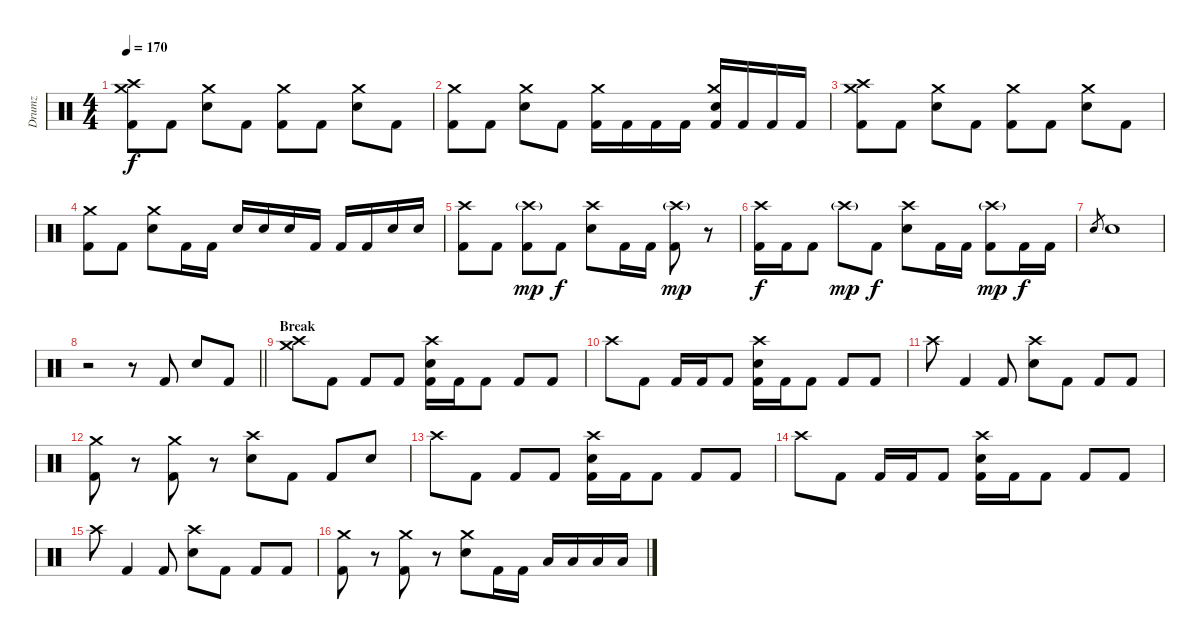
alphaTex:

\track ("Drumz" "Drumz") {instrument percussion}
\staff {score}
\articulation defaults
\ts (4 4)
\tempo 170
\clef neutral
\ks c
("Crash high (hit)" "Kick (hit) 2" "Crash medium (hit)").8{dy f} "Kick (hit) 2".8 ("Electric Snare (hit)" "Crash medium (hit)").8 "Kick (hit) 2".8 ("Kick (hit) 2" "Crash medium (hit)").8 "Kick (hit) 2".8 ("Electric Snare (hit)" "Crash medium (hit)").8 "Kick (hit) 2".8 |
("Kick (hit) 2" "Crash medium (hit)").8 "Kick (hit) 2".8 ("Electric Snare (hit)" "Crash medium (hit)").8 "Kick (hit) 2".8 ("Kick (hit) 2" "Crash medium (hit)").16 "Kick (hit) 2".16 "Kick (hit) 2".16 "Kick (hit) 2".16 ("Electric Snare (hit)" "Crash medium (hit)" "Kick (hit) 2").16 "Kick (hit) 2".16 "Kick (hit) 2".16 "Kick (hit) 2".16 |
("Crash high (hit)" "Kick (hit) 2" "Crash medium (hit)").8 "Kick (hit) 2".8 ("Electric Snare (hit)" "Crash medium (hit)").8 "Kick (hit) 2".8 ("Kick (hit) 2" "Crash medium (hit)").8 "Kick (hit) 2".8 ("Electric Snare (hit)" "Crash medium (hit)").8 "Kick (hit) 2".8 |
("Kick (hit) 2" "Crash medium (hit)").8 "Kick (hit) 2".8 ("Electric Snare (hit)" "Crash medium (hit)").8 "Kick (hit) 2".16 "Kick (hit) 2".16 "Electric Snare (hit)".16 "Electric Snare (hit)".16 "Electric Snare (hit)".16 "Kick (hit) 2".16 "Kick (hit) 2".16 "Kick (hit) 2".16 "Electric Snare (hit)".16 "Electric Snare (hit)".16 |
("Kick (hit) 2" "Crash high (hit)").8 "Kick (hit) 2".8 ("Kick (hit) 2" "Crash high (hit)"{g}).8{dy mp} "Kick (hit) 2".8{dy f} ("Electric Snare (hit)" "Crash high (hit)").8 "Kick (hit) 2".16 "Kick (hit) 2".16 ("Kick (hit) 2" "Crash high (hit)"{g}).8{dy mp} r.8 |
("Crash high (hit)" "Kick (hit) 2").16{dy f} "Kick (hit) 2".16 "Kick (hit) 2".8 "Crash high (hit)"{g}.8{dy mp} "Kick (hit) 2".8{dy f} ("Crash high (hit)" "Electric Snare (hit)").8 "Kick (hit) 2".16 "Kick (hit) 2".16 ("Kick (hit) 2" "Crash high (hit)"{g}).8{dy mp} "Kick (hit) 2".16{dy f} "Kick (hit) 2".16 |
"Electric Snare (hit)".8{gr} "Electric Snare (hit)".1 |
\barLineRight lightlight
r.2 r.8 "Kick (hit) 2".8 "Electric Snare (hit)".8 "Kick (hit) 2".8 |
\section ("" "Break")
("Crash high (hit)" "Crash medium (hit)").8 "Kick (hit) 2".8 "Kick (hit) 2".8 "Kick (hit) 2".8 ("Kick (hit) 2" "Crash high (hit)" "Electric Snare (hit)").16 "Kick (hit) 2".16 "Kick (hit) 2".8 "Kick (hit) 2".8 "Kick (hit) 2".8 |
"Crash high (hit)".8 "Kick (hit) 2".8 "Kick (hit) 2".16 "Kick (hit) 2".16 "Kick (hit) 2".8 ("Kick (hit) 2" "Crash high (hit)" "Electric Snare (hit)").16 "Kick (hit) 2".16 "Kick (hit) 2".8 "Kick (hit) 2".8 "Kick (hit) 2".8 |
"Crash high (hit)".8 "Kick (hit) 2".4 "Kick (hit) 2".8 ("Electric Snare (hit)" "Crash high (hit)").8 "Kick (hit) 2".8 "Kick (hit) 2".8 "Kick (hit) 2".8 |
("Crash medium (hit)" "Kick (hit) 2").8 r.8 ("Kick (hit) 2" "Crash medium (hit)").8 r.8 ("Crash high (hit)" "Electric Snare (hit)").8 "Kick (hit) 2".8 "Kick (hit) 2".8 "Electric Snare (hit)".8 |
"Crash high (hit)".8 "Kick (hit) 2".8 "Kick (hit) 2".8 "Kick (hit) 2".8 ("Kick (hit) 2" "Crash high (hit)" "Electric Snare (hit)").16 "Kick (hit) 2".16 "Kick (hit) 2".8 "Kick (hit) 2".8 "Kick (hit) 2".8 |
"Crash high (hit)".8 "Kick (hit) 2".8 "Kick (hit) 2".16 "Kick (hit) 2".16 "Kick (hit) 2".8 ("Kick (hit) 2" "Crash high (hit)" "Electric Snare (hit)").16 "Kick (hit) 2".16 "Kick (hit) 2".8 "Kick (hit) 2".8 "Kick (hit) 2".8 |
"Crash high (hit)".8 "Kick (hit) 2".4 "Kick (hit) 2".8 ("Electric Snare (hit)" "Crash high (hit)").8 "Kick (hit) 2".8 "Kick (hit) 2".8 "Kick (hit) 2".8 |
("Kick (hit) 2" "Crash medium (hit)").8 r.8 ("Crash medium (hit)" "Kick (hit) 2").8 r.8 ("Crash medium (hit)" "Electric Snare (hit)").8 "Kick (hit) 2".16 "Kick (hit) 2".16 "Low Tom (hit)".16 "Low Tom (hit)".16 "Low Floor Tom (hit)".16 "Low Floor Tom (hit)".16
